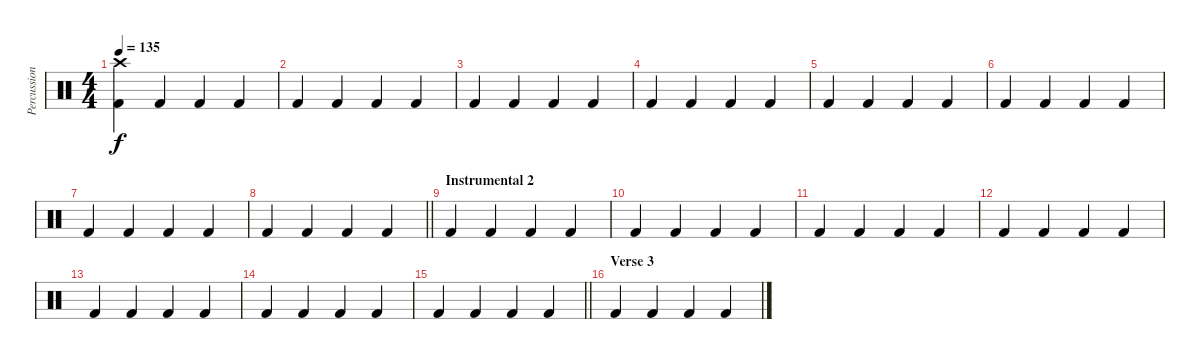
\track ("Percussion" "Percussion") {instrument percussion}
\staff {score}
\articulation defaults
\ts (4 4)
\tempo 135
\clef neutral
\ks c
("Kick (hit) 2" "Crash high (hit)").4{dy f} "Kick (hit) 2".4 "Kick (hit) 2".4 "Kick (hit) 2".4 |
"Kick (hit) 2".4 "Kick (hit) 2".4 "Kick (hit) 2".4 "Kick (hit) 2".4 |
"Kick (hit) 2".4 "Kick (hit) 2".4 "Kick (hit) 2".4 "Kick (hit) 2".4 |
"Kick (hit) 2".4 "Kick (hit) 2".4 "Kick (hit) 2".4 "Kick (hit) 2".4 |
"Kick (hit) 2".4 "Kick (hit) 2".4 "Kick (hit) 2".4 "Kick (hit) 2".4 |
"Kick (hit) 2".4 "Kick (hit) 2".4 "Kick (hit) 2".4 "Kick (hit) 2".4 |
"Kick (hit) 2".4 "Kick (hit) 2".4 "Kick (hit) 2".4 "Kick (hit) 2".4 |
\barLineRight lightlight "Kick (hit) 2".4 "Kick (hit) 2".4 "Kick (hit) 2".4 "Kick (hit) 2".4
|
\section ("" "Instrumental 2")
"Kick (hit) 2".4 "Kick (hit) 2".4 "Kick (hit) 2".4 "Kick (hit) 2".4 |
"Kick (hit) 2".4 "Kick (hit) 2".4 "Kick (hit) 2".4 "Kick (hit) 2".4 |
"Kick (hit) 2".4 "Kick (hit) 2".4 "Kick (hit) 2".4 "Kick (hit) 2".4 |
"Kick (hit) 2".4 "Kick (hit) 2".4 "Kick (hit) 2".4 "Kick (hit) 2".4 |
"Kick (hit) 2".4 "Kick (hit) 2".4 "Kick (hit) 2".4 "Kick (hit) 2".4 |
"Kick (hit) 2".4 "Kick (hit) 2".4 "Kick (hit) 2".4 "Kick (hit) 2".4 |
\barLineRight lightlight "Kick (hit) 2".4 "Kick (hit) 2".4 "Kick (hit) 2".4 "Kick (hit) 2".4
|
\section ("" "Verse 3")
"Kick (hit) 2".4 "Kick (hit) 2".4 "Kick (hit) 2".4 "Kick (hit) 2".4
